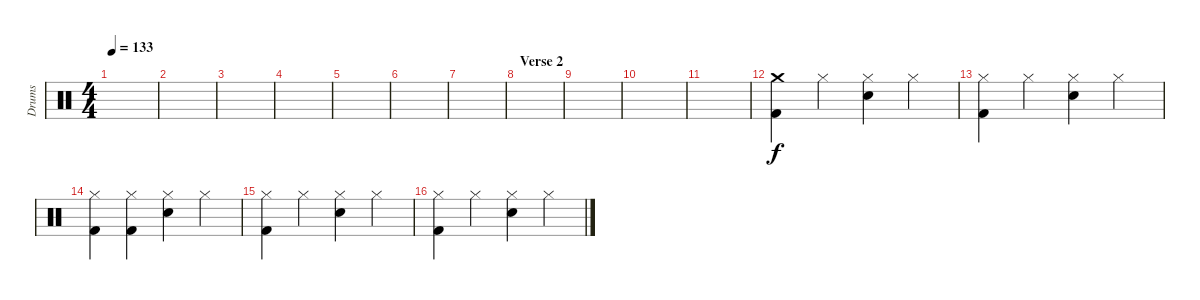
\track ("Drums" "Drums") {instrument percussion}
\staff {score}
\articulation defaults
\ts (4 4)
\tempo 133
\clef neutral
\ks c
|
|
|
|
|
|
|
\section ("" "Verse 2")
|
|
|
|
("Crash medium (hit)" "Kick (hit) 2").4 "Hi-Hat (closed)".4 ("Hi-Hat (closed)" "Electric Snare (hit)").4 "Hi-Hat (closed)".4 |
("Hi-Hat (closed)" "Kick (hit) 2").4 "Hi-Hat (closed)".4 ("Hi-Hat (closed)" "Electric Snare (hit)").4 "Hi-Hat (closed)".4 |
("Hi-Hat (closed)" "Kick (hit) 2").4 ("Hi-Hat (closed)" "Kick (hit) 2").4 ("Hi-Hat (closed)" "Electric Snare (hit)").4 "Hi-Hat (closed)".4 |
("Hi-Hat (closed)" "Kick (hit) 2").4 "Hi-Hat (closed)".4 ("Hi-Hat (closed)" "Electric Snare (hit)").4 "Hi-Hat (closed)".4 |
("Hi-Hat (closed)" "Kick (hit) 2").4 "Hi-Hat (closed)".4 ("Hi-Hat (closed)" "Electric Snare (hit)").4 "Hi-Hat (closed)".4
